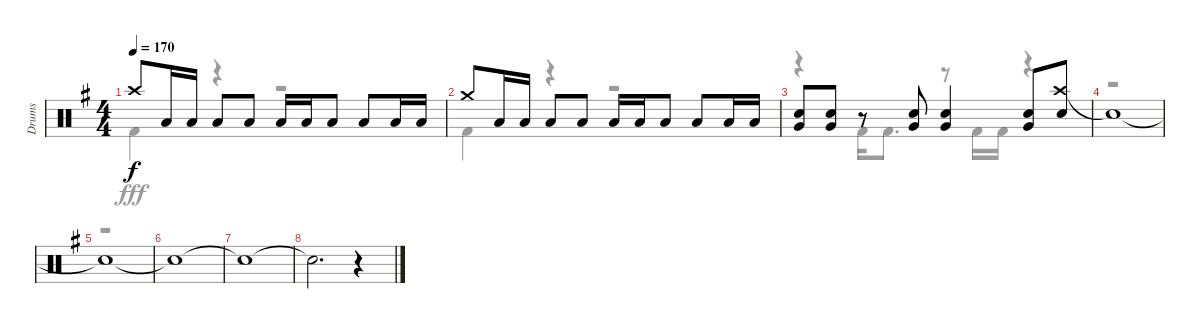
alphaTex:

\track ("Drums" "Drums") {instrument percussion}
\staff {score}
\articulation defaults
\voice
\ts (4 4)
\tempo 170
\clef neutral
\ks g "Crash high (hit)".8{dy f} "Low Tom (hit)".16 "Low Tom (hit)".16 "Low Tom (hit)".8 "Low Tom (hit)".8 "Low Tom (hit)".16 "Low Tom (hit)".16 "Low Tom (hit)".8 "Low Tom (hit)".8 "Low Tom (hit)".16 "Low Tom (hit)".16
|
"Crash medium (hit)".8 "Low Tom (hit)".16 "Low Tom (hit)".16 "Low Tom (hit)".8 "Low Tom (hit)".8 "Low Tom (hit)".16 "Low Tom (hit)".16 "Low Tom (hit)".8 "Low Tom (hit)".8 "Low Tom (hit)".16 "Low Tom (hit)".16 |
("Snare (hit) 2" "Very Low Tom (hit)").8 ("Snare (hit) 2" "Very Low Tom (hit)").8 r.8 ("Snare (hit) 2" "Very Low Tom (hit)").8 ("Snare (hit) 2" "Very Low Tom (hit)").4 ("Snare (hit) 2" "Very Low Tom (hit)").8 ("Crash high (hit)" "Snare (hit) 2").8 |
"Snare (hit)"{t}.1 |
"Snare (hit)"{t}.1 |
"Snare (hit)"{t}.1 |
"Snare (hit)"{t}.1 |
"Snare (hit)"{t}.2{d} r.4
\voice
\clef neutral
\ottava regular
\simile none
\ks g "Kick (hit) 2".4{dy fff}
r.4 r.2 |
"Kick (hit) 2".4 r.4 r.2 |
r.4 "Kick (hit) 2".16 "Kick (hit) 2".8{d} r.8 "Kick (hit) 2".16 "Kick (hit) 2".16 r.4 |
r.1 |
r.1 |
|
|
